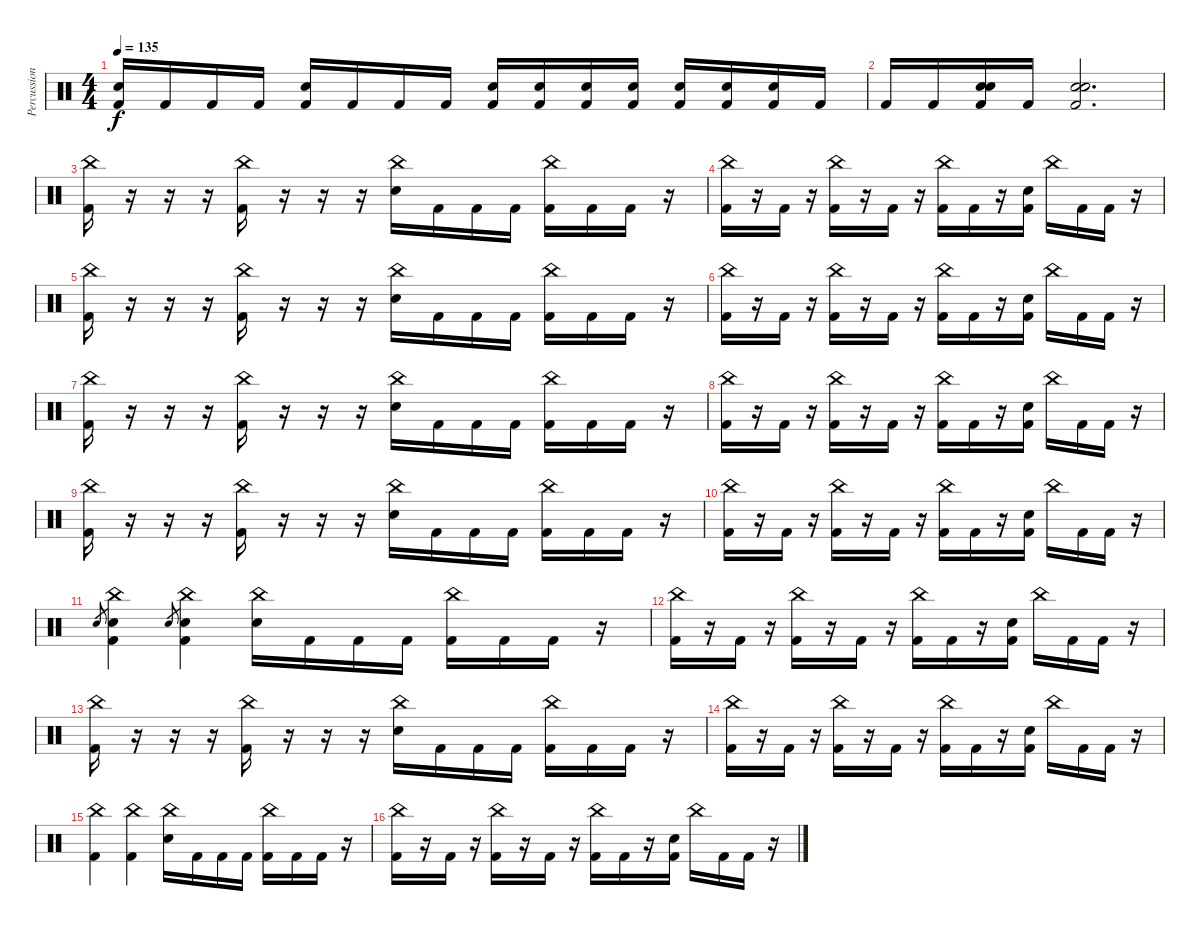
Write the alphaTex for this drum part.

\track ("Percussions" "Percussion") {instrument percussion}
\staff {score}
\articulation defaults
\ts (4 4)
\tempo 135
\clef neutral
\ks c
("Electric Snare (hit)" "Kick (hit) 2").16{dy f} "Kick (hit) 2".16 "Kick (hit) 2".16 "Kick (hit) 2".16 ("Electric Snare (hit)" "Kick (hit) 2").16 "Kick (hit) 2".16 "Kick (hit) 2".16 "Kick (hit) 2".16 ("Electric Snare (hit)" "Kick (hit) 2").16 ("Electric Snare (hit)" "Kick (hit) 2").16 ("Electric Snare (hit)" "Kick (hit) 2").16 ("Electric Snare (hit)" "Kick (hit) 2").16 ("Electric Snare (hit)" "Kick (hit) 2").16 ("Electric Snare (hit)" "Kick (hit) 2").16 ("Electric Snare (hit)" "Kick (hit) 2").16 "Kick (hit) 2".16 |
"Kick (hit) 2".16 "Kick (hit) 2".16 ("Electric Snare (hit)" "Electric Snare (hit)" "Kick (hit) 2").16 "Kick (hit) 2".16 ("Electric Snare (hit)" "Electric Snare (hit)" "Kick (hit) 2").2{d} |
("China (hit)" "Kick (hit) 2").16 r.16 r.16 r.16 ("China (hit)" "Kick (hit) 2").16 r.16 r.16 r.16 ("China (hit)" "Electric Snare (hit)").16 "Kick (hit) 2".16 "Kick (hit) 2".16 "Kick (hit) 2".16 ("China (hit)" "Kick (hit) 2").16 "Kick (hit) 2".16 "Kick (hit) 2".16 r.16 |
("China (hit)" "Kick (hit) 2").16 r.16 "Kick (hit) 2".16 r.16 ("China (hit)" "Kick (hit) 2").16 r.16 "Kick (hit) 2".16 r.16 ("China (hit)" "Kick (hit) 2").16 "Kick (hit) 2".16 r.16 ("Electric Snare (hit)" "Kick (hit) 2").16 "China (hit)".16 "Kick (hit) 2".16 "Kick (hit) 2".16 r.16 |
("China (hit)" "Kick (hit) 2").16 r.16 r.16 r.16 ("China (hit)" "Kick (hit) 2").16 r.16 r.16 r.16 ("China (hit)" "Electric Snare (hit)").16 "Kick (hit) 2".16 "Kick (hit) 2".16 "Kick (hit) 2".16 ("China (hit)" "Kick (hit) 2").16 "Kick (hit) 2".16 "Kick (hit) 2".16 r.16 |
("China (hit)" "Kick (hit) 2").16 r.16 "Kick (hit) 2".16 r.16 ("China (hit)" "Kick (hit) 2").16 r.16 "Kick (hit) 2".16 r.16 ("China (hit)" "Kick (hit) 2").16 "Kick (hit) 2".16 r.16 ("Electric Snare (hit)" "Kick (hit) 2").16 "China (hit)".16 "Kick (hit) 2".16 "Kick (hit) 2".16 r.16 |
("China (hit)" "Kick (hit) 2").16 r.16 r.16 r.16 ("China (hit)" "Kick (hit) 2").16 r.16 r.16 r.16 ("China (hit)" "Electric Snare (hit)").16 "Kick (hit) 2".16 "Kick (hit) 2".16 "Kick (hit) 2".16 ("China (hit)" "Kick (hit) 2").16 "Kick (hit) 2".16 "Kick (hit) 2".16 r.16 |
("China (hit)" "Kick (hit) 2").16 r.16 "Kick (hit) 2".16 r.16 ("China (hit)" "Kick (hit) 2").16 r.16 "Kick (hit) 2".16 r.16 ("China (hit)" "Kick (hit) 2").16 "Kick (hit) 2".16 r.16 ("Electric Snare (hit)" "Kick (hit) 2").16 "China (hit)".16 "Kick (hit) 2".16 "Kick (hit) 2".16 r.16 |
("China (hit)" "Kick (hit) 2").16 r.16 r.16 r.16 ("China (hit)" "Kick (hit) 2").16 r.16 r.16 r.16 ("China (hit)" "Electric Snare (hit)").16 "Kick (hit) 2".16 "Kick (hit) 2".16 "Kick (hit) 2".16 ("China (hit)" "Kick (hit) 2").16 "Kick (hit) 2".16 "Kick (hit) 2".16 r.16 |
("China (hit)" "Kick (hit) 2").16 r.16 "Kick (hit) 2".16 r.16 ("China (hit)" "Kick (hit) 2").16 r.16 "Kick (hit) 2".16 r.16 ("China (hit)" "Kick (hit) 2").16 "Kick (hit) 2".16 r.16 ("Electric Snare (hit)" "Kick (hit) 2").16 "China (hit)".16 "Kick (hit) 2".16 "Kick (hit) 2".16 r.16 |
"Electric Snare (hit)".8{gr} ("China (hit)" "Electric Snare (hit)" "Kick (hit) 2").4 "Electric Snare (hit)".8{gr} ("China (hit)" "Electric Snare (hit)" "Kick (hit) 2").4 ("China (hit)" "Electric Snare (hit)").16 "Kick (hit) 2".16 "Kick (hit) 2".16 "Kick (hit) 2".16 ("China (hit)" "Kick (hit) 2").16 "Kick (hit) 2".16 "Kick (hit) 2".16 r.16 |
("China (hit)" "Kick (hit) 2").16 r.16 "Kick (hit) 2".16 r.16 ("China (hit)" "Kick (hit) 2").16 r.16 "Kick (hit) 2".16 r.16 ("China (hit)" "Kick (hit) 2").16 "Kick (hit) 2".16 r.16 ("Electric Snare (hit)" "Kick (hit) 2").16 "China (hit)".16 "Kick (hit) 2".16 "Kick (hit) 2".16 r.16 |
("China (hit)" "Kick (hit) 2").16 r.16 r.16 r.16 ("China (hit)" "Kick (hit) 2").16 r.16 r.16 r.16 ("China (hit)" "Electric Snare (hit)").16 "Kick (hit) 2".16 "Kick (hit) 2".16 "Kick (hit) 2".16 ("China (hit)" "Kick (hit) 2").16 "Kick (hit) 2".16 "Kick (hit) 2".16 r.16 |
("China (hit)" "Kick (hit) 2").16 r.16 "Kick (hit) 2".16 r.16 ("China (hit)" "Kick (hit) 2").16 r.16 "Kick (hit) 2".16 r.16 ("China (hit)" "Kick (hit) 2").16 "Kick (hit) 2".16 r.16 ("Electric Snare (hit)" "Kick (hit) 2").16 "China (hit)".16 "Kick (hit) 2".16 "Kick (hit) 2".16 r.16 |
("China (hit)" "Kick (hit) 2").4 ("China (hit)" "Kick (hit) 2").4 ("China (hit)" "Electric Snare (hit)").16 "Kick (hit) 2".16 "Kick (hit) 2".16 "Kick (hit) 2".16 ("China (hit)" "Kick (hit) 2").16 "Kick (hit) 2".16 "Kick (hit) 2".16 r.16 |
("China (hit)" "Kick (hit) 2").16 r.16 "Kick (hit) 2".16 r.16 ("China (hit)" "Kick (hit) 2").16 r.16 "Kick (hit) 2".16 r.16 ("China (hit)" "Kick (hit) 2").16 "Kick (hit) 2".16 r.16 ("Electric Snare (hit)" "Kick (hit) 2").16 "China (hit)".16 "Kick (hit) 2".16 "Kick (hit) 2".16 r.16
